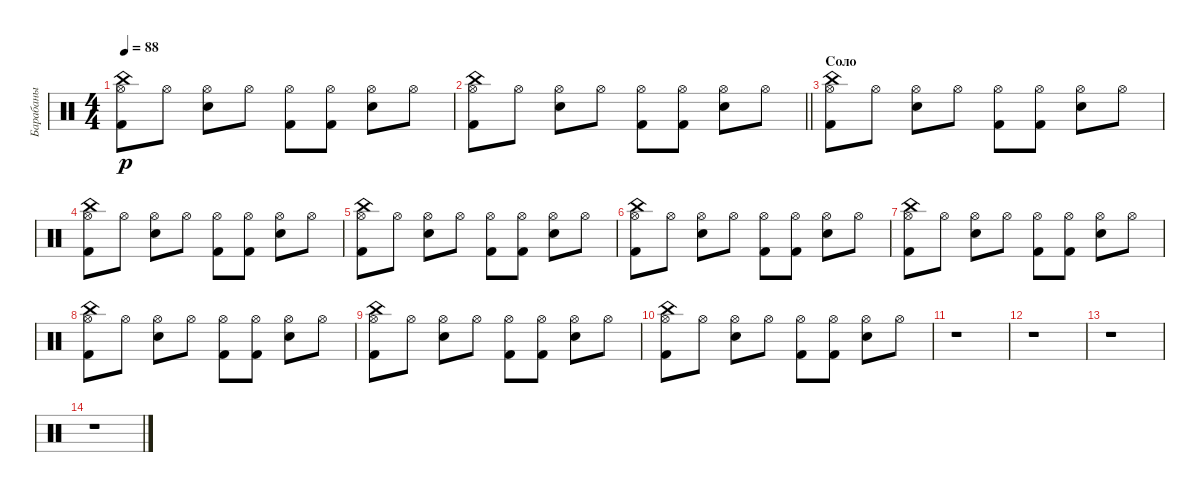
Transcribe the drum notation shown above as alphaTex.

\track ("Барабаны" "Барабаны") {instrument percussion}
\staff {score}
\articulation defaults
\ts (4 4)
\tempo 88
\clef neutral
\ks c
("China (hit)" "Kick (hit) 2" "Hi-Hat (open)").8{dy p} "Hi-Hat (open)".8 ("Electric Snare (hit)" "Hi-Hat (open)").8 "Hi-Hat (open)".8 ("Kick (hit) 2" "Hi-Hat (open)").8 ("Kick (hit) 2" "Hi-Hat (open)").8 ("Electric Snare (hit)" "Hi-Hat (open)").8 "Hi-Hat (open)".8 |
\barLineRight lightlight
("China (hit)" "Kick (hit) 2" "Hi-Hat (open)").8 "Hi-Hat (open)".8 ("Electric Snare (hit)" "Hi-Hat (open)").8 "Hi-Hat (open)".8 ("Kick (hit) 2" "Hi-Hat (open)").8 ("Kick (hit) 2" "Hi-Hat (open)").8 ("Electric Snare (hit)" "Hi-Hat (open)").8 "Hi-Hat (open)".8 |
\section ("" "Соло")
("China (hit)" "Kick (hit) 2" "Hi-Hat (open)").8 "Hi-Hat (open)".8 ("Electric Snare (hit)" "Hi-Hat (open)").8 "Hi-Hat (open)".8 ("Kick (hit) 2" "Hi-Hat (open)").8 ("Kick (hit) 2" "Hi-Hat (open)").8 ("Electric Snare (hit)" "Hi-Hat (open)").8 "Hi-Hat (open)".8 |
("China (hit)" "Kick (hit) 2" "Hi-Hat (open)").8 "Hi-Hat (open)".8 ("Electric Snare (hit)" "Hi-Hat (open)").8 "Hi-Hat (open)".8 ("Kick (hit) 2" "Hi-Hat (open)").8 ("Kick (hit) 2" "Hi-Hat (open)").8 ("Electric Snare (hit)" "Hi-Hat (open)").8 "Hi-Hat (open)".8 |
("China (hit)" "Kick (hit) 2" "Hi-Hat (open)").8 "Hi-Hat (open)".8 ("Electric Snare (hit)" "Hi-Hat (open)").8 "Hi-Hat (open)".8 ("Kick (hit) 2" "Hi-Hat (open)").8 ("Kick (hit) 2" "Hi-Hat (open)").8 ("Electric Snare (hit)" "Hi-Hat (open)").8 "Hi-Hat (open)".8 |
("China (hit)" "Kick (hit) 2" "Hi-Hat (open)").8 "Hi-Hat (open)".8 ("Electric Snare (hit)" "Hi-Hat (open)").8 "Hi-Hat (open)".8 ("Kick (hit) 2" "Hi-Hat (open)").8 ("Kick (hit) 2" "Hi-Hat (open)").8 ("Electric Snare (hit)" "Hi-Hat (open)").8 "Hi-Hat (open)".8 |
("China (hit)" "Kick (hit) 2" "Hi-Hat (open)").8 "Hi-Hat (open)".8 ("Electric Snare (hit)" "Hi-Hat (open)").8 "Hi-Hat (open)".8 ("Kick (hit) 2" "Hi-Hat (open)").8 ("Kick (hit) 2" "Hi-Hat (open)").8 ("Electric Snare (hit)" "Hi-Hat (open)").8 "Hi-Hat (open)".8 |
("China (hit)" "Kick (hit) 2" "Hi-Hat (open)").8 "Hi-Hat (open)".8 ("Electric Snare (hit)" "Hi-Hat (open)").8 "Hi-Hat (open)".8 ("Kick (hit) 2" "Hi-Hat (open)").8 ("Kick (hit) 2" "Hi-Hat (open)").8 ("Electric Snare (hit)" "Hi-Hat (open)").8 "Hi-Hat (open)".8 |
("China (hit)" "Kick (hit) 2" "Hi-Hat (open)").8 "Hi-Hat (open)".8 ("Electric Snare (hit)" "Hi-Hat (open)").8 "Hi-Hat (open)".8 ("Kick (hit) 2" "Hi-Hat (open)").8 ("Kick (hit) 2" "Hi-Hat (open)").8 ("Electric Snare (hit)" "Hi-Hat (open)").8 "Hi-Hat (open)".8 |
("China (hit)" "Kick (hit) 2" "Hi-Hat (open)").8 "Hi-Hat (open)".8 ("Electric Snare (hit)" "Hi-Hat (open)").8 "Hi-Hat (open)".8 ("Kick (hit) 2" "Hi-Hat (open)").8 ("Kick (hit) 2" "Hi-Hat (open)").8 ("Electric Snare (hit)" "Hi-Hat (open)").8 "Hi-Hat (open)".8 |
r.1 |
r.1 |
r.1 |
r.1
